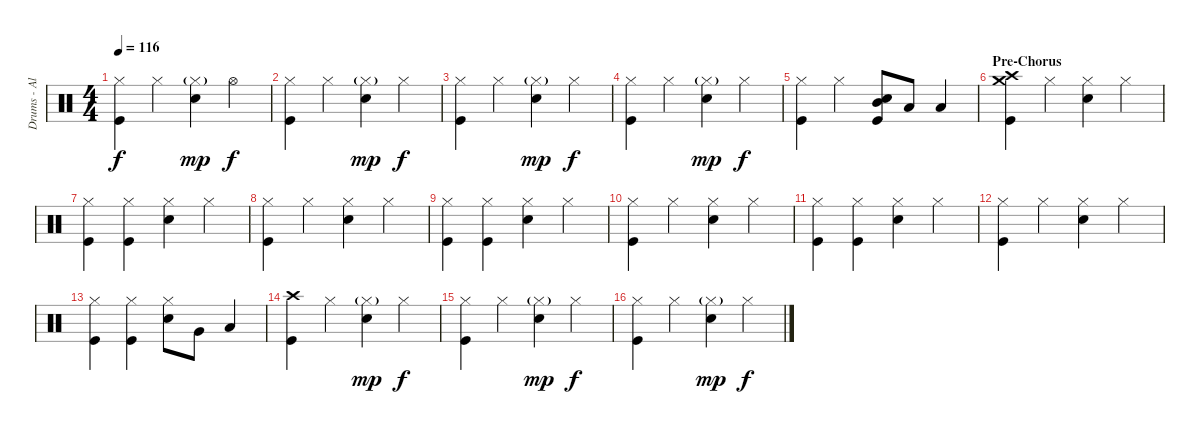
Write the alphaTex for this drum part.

\track ("Drums - Alex Holzwarth" "Drums - Al") {instrument percussion}
\staff {score}
\articulation defaults
\ts (4 4)
\tempo 116
\clef neutral
\ks c
("Hi-Hat (closed)" "Kick (hit)").4{dy f} "Hi-Hat (closed)".4 ("Electric Snare (hit)" "Hi-Hat (closed)"{g}).4{dy mp} "Hi-Hat (open)".4{dy f} |
("Hi-Hat (closed)" "Kick (hit)").4 "Hi-Hat (closed)".4 ("Electric Snare (hit)" "Hi-Hat (closed)"{g}).4{dy mp} "Hi-Hat (closed)".4{dy f} |
("Hi-Hat (closed)" "Kick (hit)").4 "Hi-Hat (closed)".4 ("Electric Snare (hit)" "Hi-Hat (closed)"{g}).4{dy mp} "Hi-Hat (closed)".4{dy f} |
("Hi-Hat (closed)" "Kick (hit)").4 "Hi-Hat (closed)".4 ("Electric Snare (hit)" "Hi-Hat (closed)"{g}).4{dy mp} "Hi-Hat (closed)".4{dy f} |
("Hi-Hat (closed)" "Kick (hit)").4 "Hi-Hat (closed)".4 ("Electric Snare (hit)" "Mid Tom (hit)" "Kick (hit)").8 "Low Tom (hit)".8 "Low Floor Tom (hit)".4 |
\section ("" "Pre-Chorus")
("Crash medium (hit)" "Crash high (hit)" "Kick (hit)").4 "Hi-Hat (closed)".4 ("Electric Snare (hit)" "Hi-Hat (closed)").4 "Hi-Hat (closed)".4 |
("Hi-Hat (closed)" "Kick (hit)").4 ("Hi-Hat (closed)" "Kick (hit)").4 ("Electric Snare (hit)" "Hi-Hat (closed)").4 "Hi-Hat (closed)".4 |
("Hi-Hat (closed)" "Kick (hit)").4 "Hi-Hat (closed)".4 ("Electric Snare (hit)" "Hi-Hat (closed)").4 "Hi-Hat (closed)".4 |
("Hi-Hat (closed)" "Kick (hit)").4 ("Hi-Hat (closed)" "Kick (hit)").4 ("Electric Snare (hit)" "Hi-Hat (closed)").4 "Hi-Hat (closed)".4 |
("Hi-Hat (closed)" "Kick (hit)").4 "Hi-Hat (closed)".4 ("Electric Snare (hit)" "Hi-Hat (closed)").4 "Hi-Hat (closed)".4 |
("Hi-Hat (closed)" "Kick (hit)").4 ("Hi-Hat (closed)" "Kick (hit)").4 ("Electric Snare (hit)" "Hi-Hat (closed)").4 "Hi-Hat (closed)".4 |
("Hi-Hat (closed)" "Kick (hit)").4 "Hi-Hat (closed)".4 ("Electric Snare (hit)" "Hi-Hat (closed)").4 "Hi-Hat (closed)".4 |
("Hi-Hat (closed)" "Kick (hit)").4 ("Hi-Hat (closed)" "Kick (hit)").4 ("Electric Snare (hit)" "Hi-Hat (closed)").8 "Very Low Tom (hit)".8 "Low Floor Tom (hit)".4 |
("Crash high (hit)" "Kick (hit)").4 "Hi-Hat (closed)".4 ("Snare (hit) 2" "Hi-Hat (closed)"{g}).4{dy mp} "Hi-Hat (closed)".4{dy f} |
("Hi-Hat (closed)" "Kick (hit)").4 "Hi-Hat (closed)".4 ("Electric Snare (hit)" "Hi-Hat (closed)"{g}).4{dy mp} "Hi-Hat (closed)".4{dy f} |
("Hi-Hat (closed)" "Kick (hit)").4 "Hi-Hat (closed)".4 ("Electric Snare (hit)" "Hi-Hat (closed)"{g}).4{dy mp} "Hi-Hat (closed)".4{dy f}
